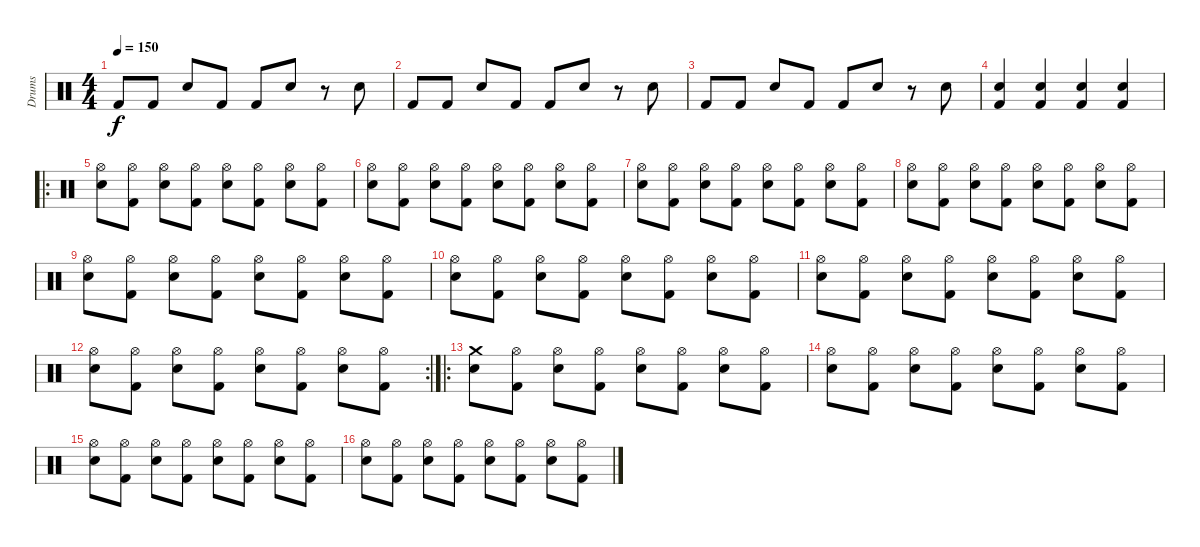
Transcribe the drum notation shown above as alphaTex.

\track ("Drums" "Drums") {instrument percussion}
\staff {score}
\articulation defaults
\ts (4 4)
\tempo 150
\clef neutral
\ks c "Kick (hit) 2".8{dy f} "Kick (hit) 2".8 "Electric Snare (hit)".8 "Kick (hit) 2".8 "Kick (hit) 2".8 "Electric Snare (hit)".8
r.8 "Electric Snare (hit)".8 |
"Kick (hit) 2".8 "Kick (hit) 2".8 "Electric Snare (hit)".8 "Kick (hit) 2".8 "Kick (hit) 2".8 "Electric Snare (hit)".8 r.8 "Electric Snare (hit)".8 |
"Kick (hit) 2".8 "Kick (hit) 2".8 "Electric Snare (hit)".8 "Kick (hit) 2".8 "Kick (hit) 2".8 "Electric Snare (hit)".8 r.8 "Electric Snare (hit)".8 |
("Kick (hit) 2" "Electric Snare (hit)").4 ("Kick (hit) 2" "Electric Snare (hit)").4 ("Kick (hit) 2" "Electric Snare (hit)").4 ("Kick (hit) 2" "Electric Snare (hit)").4 |
\ro
("Electric Snare (hit)" "Hi-Hat (open)").8 ("Kick (hit) 2" "Hi-Hat (open)").8 ("Electric Snare (hit)" "Hi-Hat (open)").8 ("Kick (hit) 2" "Hi-Hat (open)").8 ("Electric Snare (hit)" "Hi-Hat (open)").8 ("Kick (hit) 2" "Hi-Hat (open)").8 ("Electric Snare (hit)" "Hi-Hat (open)").8 ("Kick (hit) 2" "Hi-Hat (open)").8 |
("Electric Snare (hit)" "Hi-Hat (open)").8 ("Kick (hit) 2" "Hi-Hat (open)").8 ("Electric Snare (hit)" "Hi-Hat (open)").8 ("Kick (hit) 2" "Hi-Hat (open)").8 ("Electric Snare (hit)" "Hi-Hat (open)").8 ("Kick (hit) 2" "Hi-Hat (open)").8 ("Electric Snare (hit)" "Hi-Hat (open)").8 ("Kick (hit) 2" "Hi-Hat (open)").8 |
("Electric Snare (hit)" "Hi-Hat (open)").8 ("Kick (hit) 2" "Hi-Hat (open)").8 ("Electric Snare (hit)" "Hi-Hat (open)").8 ("Kick (hit) 2" "Hi-Hat (open)").8 ("Electric Snare (hit)" "Hi-Hat (open)").8 ("Kick (hit) 2" "Hi-Hat (open)").8 ("Electric Snare (hit)" "Hi-Hat (open)").8 ("Kick (hit) 2" "Hi-Hat (open)").8 |
("Electric Snare (hit)" "Hi-Hat (open)").8 ("Kick (hit) 2" "Hi-Hat (open)").8 ("Electric Snare (hit)" "Hi-Hat (open)").8 ("Kick (hit) 2" "Hi-Hat (open)").8 ("Electric Snare (hit)" "Hi-Hat (open)").8 ("Kick (hit) 2" "Hi-Hat (open)").8 ("Electric Snare (hit)" "Hi-Hat (open)").8 ("Kick (hit) 2" "Hi-Hat (open)").8 |
("Electric Snare (hit)" "Hi-Hat (open)").8 ("Kick (hit) 2" "Hi-Hat (open)").8 ("Electric Snare (hit)" "Hi-Hat (open)").8 ("Kick (hit) 2" "Hi-Hat (open)").8 ("Electric Snare (hit)" "Hi-Hat (open)").8 ("Kick (hit) 2" "Hi-Hat (open)").8 ("Electric Snare (hit)" "Hi-Hat (open)").8 ("Kick (hit) 2" "Hi-Hat (open)").8 |
("Electric Snare (hit)" "Hi-Hat (open)").8 ("Kick (hit) 2" "Hi-Hat (open)").8 ("Electric Snare (hit)" "Hi-Hat (open)").8 ("Kick (hit) 2" "Hi-Hat (open)").8 ("Electric Snare (hit)" "Hi-Hat (open)").8 ("Kick (hit) 2" "Hi-Hat (open)").8 ("Electric Snare (hit)" "Hi-Hat (open)").8 ("Kick (hit) 2" "Hi-Hat (open)").8 |
("Electric Snare (hit)" "Hi-Hat (open)").8 ("Kick (hit) 2" "Hi-Hat (open)").8 ("Electric Snare (hit)" "Hi-Hat (open)").8 ("Kick (hit) 2" "Hi-Hat (open)").8 ("Electric Snare (hit)" "Hi-Hat (open)").8 ("Kick (hit) 2" "Hi-Hat (open)").8 ("Electric Snare (hit)" "Hi-Hat (open)").8 ("Kick (hit) 2" "Hi-Hat (open)").8 |
\rc 2
("Electric Snare (hit)" "Hi-Hat (open)").8 ("Kick (hit) 2" "Hi-Hat (open)").8 ("Electric Snare (hit)" "Hi-Hat (open)").8 ("Kick (hit) 2" "Hi-Hat (open)").8 ("Electric Snare (hit)" "Hi-Hat (open)").8 ("Kick (hit) 2" "Hi-Hat (open)").8 ("Electric Snare (hit)" "Hi-Hat (open)").8 ("Kick (hit) 2" "Hi-Hat (open)").8 |
\ro
("Electric Snare (hit)" "Crash medium (hit)").8 ("Kick (hit) 2" "Hi-Hat (open)").8 ("Electric Snare (hit)" "Hi-Hat (open)").8 ("Kick (hit) 2" "Hi-Hat (open)").8 ("Electric Snare (hit)" "Hi-Hat (open)").8 ("Kick (hit) 2" "Hi-Hat (open)").8 ("Electric Snare (hit)" "Hi-Hat (open)").8 ("Kick (hit) 2" "Hi-Hat (open)").8 |
("Electric Snare (hit)" "Hi-Hat (open)").8 ("Kick (hit) 2" "Hi-Hat (open)").8 ("Electric Snare (hit)" "Hi-Hat (open)").8 ("Kick (hit) 2" "Hi-Hat (open)").8 ("Electric Snare (hit)" "Hi-Hat (open)").8 ("Kick (hit) 2" "Hi-Hat (open)").8 ("Electric Snare (hit)" "Hi-Hat (open)").8 ("Kick (hit) 2" "Hi-Hat (open)").8 |
("Electric Snare (hit)" "Hi-Hat (open)").8 ("Kick (hit) 2" "Hi-Hat (open)").8 ("Electric Snare (hit)" "Hi-Hat (open)").8 ("Kick (hit) 2" "Hi-Hat (open)").8 ("Electric Snare (hit)" "Hi-Hat (open)").8 ("Kick (hit) 2" "Hi-Hat (open)").8 ("Electric Snare (hit)" "Hi-Hat (open)").8 ("Kick (hit) 2" "Hi-Hat (open)").8 |
("Electric Snare (hit)" "Hi-Hat (open)").8 ("Kick (hit) 2" "Hi-Hat (open)").8 ("Electric Snare (hit)" "Hi-Hat (open)").8 ("Kick (hit) 2" "Hi-Hat (open)").8 ("Electric Snare (hit)" "Hi-Hat (open)").8 ("Kick (hit) 2" "Hi-Hat (open)").8 ("Electric Snare (hit)" "Hi-Hat (open)").8 ("Kick (hit) 2" "Hi-Hat (open)").8
